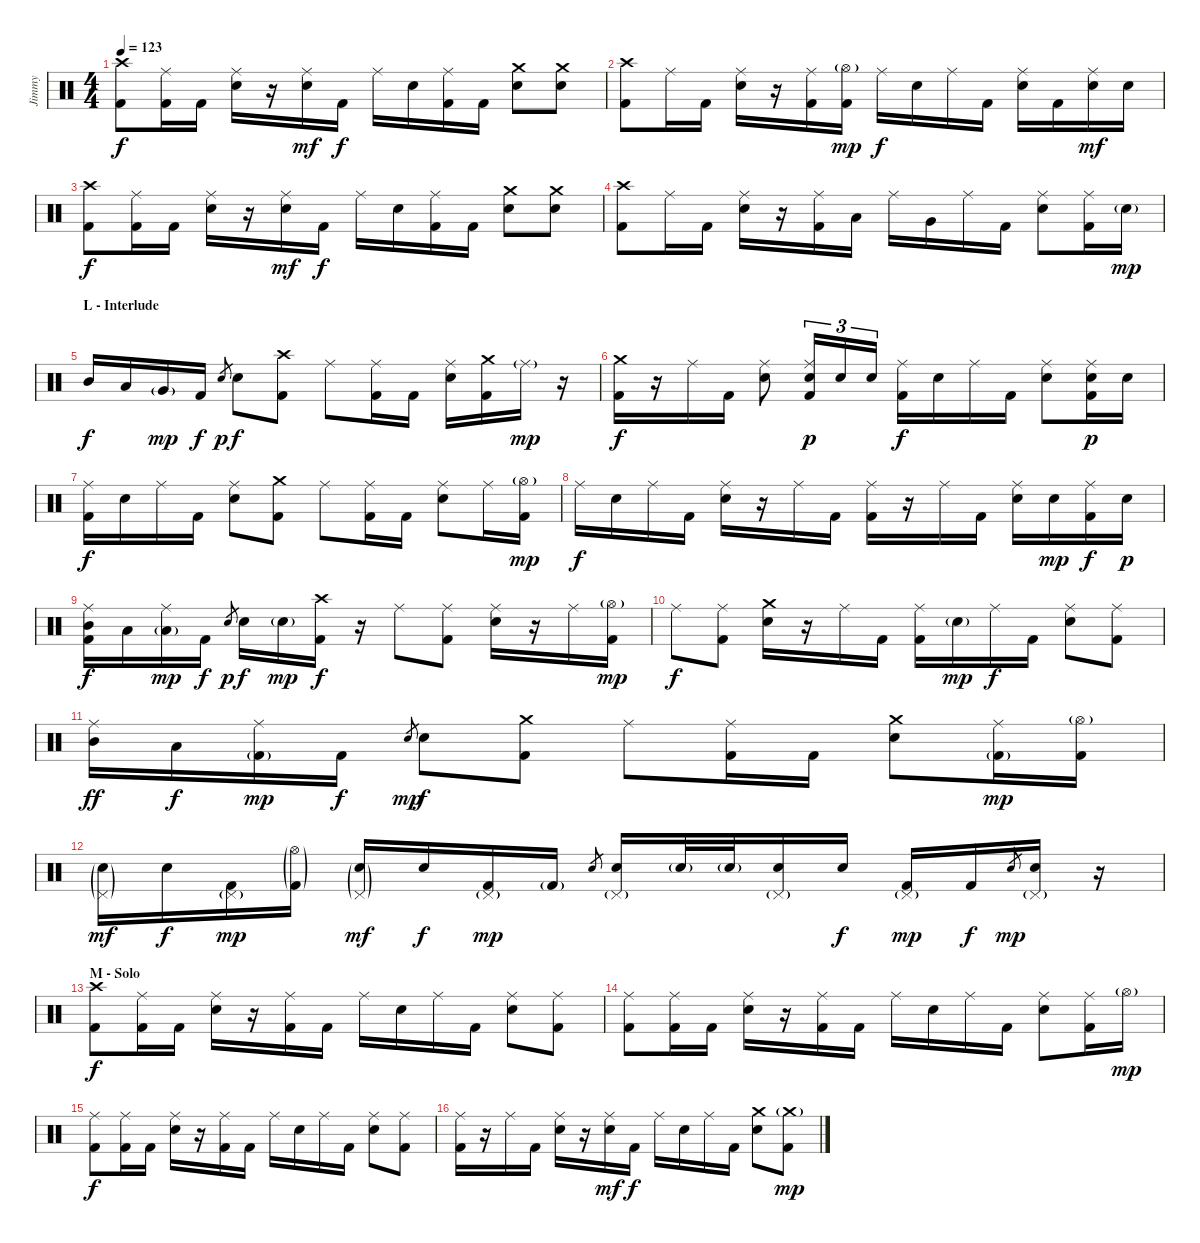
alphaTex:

\track ("Jimmy" "Jimmy") {instrument percussion}
\staff {score}
\articulation defaults
\ts (4 4)
\tempo 123
\clef neutral
\ks c
("Crash high (hit)" "Kick (hit) 2").8{dy f} ("Ride (middle)" "Kick (hit) 2").16 "Kick (hit) 2".16 ("Ride (middle)" "Electric Snare (hit)").16 r.16 ("Ride (middle)" "Electric Snare (hit)").16{dy mf} "Kick (hit) 2".16{dy f} "Ride (middle)".16 "Electric Snare (hit)".16 ("Ride (middle)" "Kick (hit) 2").16 "Kick (hit) 2".16 ("Crash medium (hit)" "Electric Snare (hit)").8 ("Crash medium (hit)" "Electric Snare (hit)").8 |
("Crash high (hit)" "Kick (hit) 2").8 "Ride (middle)".16 "Kick (hit) 2".16 ("Ride (middle)" "Electric Snare (hit)").16 r.16 ("Ride (middle)" "Kick (hit) 2").16 ("Hi-Hat (open)"{g} "Kick (hit) 2").16{dy mp} "Ride (middle)".16{dy f} "Electric Snare (hit)".16 "Ride (middle)".16 "Kick (hit) 2".16 ("Ride (middle)" "Electric Snare (hit)").16 "Kick (hit) 2".16 ("Ride (middle)" "Electric Snare (hit)").16{dy mf} "Electric Snare (hit)".16 |
("Crash high (hit)" "Kick (hit) 2").8{dy f} ("Ride (middle)" "Kick (hit) 2").16 "Kick (hit) 2".16 ("Ride (middle)" "Electric Snare (hit)").16 r.16 ("Ride (middle)" "Electric Snare (hit)").16{dy mf} "Kick (hit) 2".16{dy f} "Ride (middle)".16 "Electric Snare (hit)".16 ("Ride (middle)" "Kick (hit) 2").16 "Kick (hit) 2".16 ("Crash medium (hit)" "Electric Snare (hit)").8 ("Crash medium (hit)" "Electric Snare (hit)").8 |
("Crash high (hit)" "Kick (hit) 2").8 "Ride (middle)".16 "Kick (hit) 2".16 ("Ride (middle)" "Electric Snare (hit)").16 r.16 ("Ride (middle)" "Kick (hit) 2").16 "Low Tom (hit)".16 "Ride (middle)".16 "Very Low Tom (hit)".16 "Ride (middle)".16 "Kick (hit) 2".16 ("Ride (middle)" "Electric Snare (hit)").8 ("Ride (middle)" "Kick (hit) 2").16 "Electric Snare (hit)"{g}.16{dy mp} |
\section ("" "L - Interlude")
"Mid Tom (hit)".16{dy f} "Low Tom (hit)".16 "Very Low Tom (hit)"{g}.16{dy mp} "Kick (hit) 2".16{dy f} "Electric Snare (hit)".8{gr dy p} "Electric Snare (hit)".8{dy f} ("Crash high (hit)" "Kick (hit) 2").8 "Ride (middle)".8 ("Ride (middle)" "Kick (hit) 2").16 "Kick (hit) 2".16 ("Ride (middle)" "Electric Snare (hit)").16 ("Crash medium (hit)" "Kick (hit) 2").16 "Ride (middle)"{g}.16{dy mp} r.16 |
("Crash medium (hit)" "Kick (hit) 2").16{dy f} r.16 "Ride (middle)".16 "Kick (hit) 2".16 ("Ride (middle)" "Electric Snare (hit)").8 ("Ride (middle)" "Electric Snare (hit)" "Kick (hit) 2").16{tu (3 2) dy p} "Electric Snare (hit)".16{tu (3 2)} "Electric Snare (hit)".16{tu (3 2)} ("Ride (middle)" "Kick (hit) 2").16{dy f} "Electric Snare (hit)".16 "Ride (middle)".16 "Kick (hit) 2".16 ("Ride (middle)" "Electric Snare (hit)").8 ("Ride (middle)" "Electric Snare (hit)" "Kick (hit) 2").16{dy p} "Electric Snare (hit)".16 |
("Ride (middle)" "Kick (hit) 2").16{dy f} "Electric Snare (hit)".16 "Ride (middle)".16 "Kick (hit) 2".16 ("Ride (middle)" "Electric Snare (hit)").8 ("Crash medium (hit)" "Kick (hit) 2").8 "Ride (middle)".8 ("Ride (middle)" "Kick (hit) 2").16 "Kick (hit) 2".16 ("Ride (middle)" "Electric Snare (hit)").8 "Ride (middle)".16 ("Hi-Hat (open)"{g} "Kick (hit) 2").16{dy mp} |
"Ride (middle)".16{dy f} "Electric Snare (hit)".16 "Ride (middle)".16 "Kick (hit) 2".16 ("Ride (middle)" "Electric Snare (hit)").16 r.16 "Ride (middle)".16 "Kick (hit) 2".16 ("Ride (middle)" "Kick (hit) 2").16 r.16 "Ride (middle)".16 "Kick (hit) 2".16 ("Ride (middle)" "Electric Snare (hit)").16 "Electric Snare (hit)".16{dy mp} ("Ride (middle)" "Kick (hit) 2").16{dy f} "Electric Snare (hit)".16{dy p} |
("Ride (middle)" "Mid Tom (hit)" "Kick (hit) 2").16{dy f} "Low Tom (hit)".16 ("Ride (middle)" "Low Tom (hit)"{g}).16{dy mp} "Kick (hit) 2".16{dy f} "Electric Snare (hit)".8{gr dy p} "Electric Snare (hit)".16{dy f} "Electric Snare (hit)"{g}.16{dy mp} ("Crash high (hit)" "Kick (hit) 2").16{dy f} r.16 "Ride (middle)".8 ("Ride (middle)" "Kick (hit) 2").8 ("Ride (middle)" "Electric Snare (hit)").16 r.16 "Ride (middle)".16 ("Hi-Hat (open)"{g} "Kick (hit) 2").16{dy mp} |
"Ride (middle)".8{dy f} ("Ride (middle)" "Kick (hit) 2").8 ("Crash medium (hit)" "Electric Snare (hit)").16 r.16 "Ride (middle)".16 "Kick (hit) 2".16 ("Ride (middle)" "Kick (hit) 2").16 "Electric Snare (hit)"{g}.16{dy mp} "Ride (middle)".16{dy f} "Kick (hit) 2".16 ("Ride (middle)" "Electric Snare (hit)").8 ("Ride (middle)" "Kick (hit) 2").8 |
("Ride (middle)" "Mid Tom (hit)").16{dy ff} "Low Tom (hit)".16{dy f} ("Ride (middle)" "Kick (hit) 2"{g}).16{dy mp} "Kick (hit) 2".16{dy f} "Electric Snare (hit)".8{gr dy mp} "Electric Snare (hit)".8{dy f} ("Crash medium (hit)" "Kick (hit) 2").8 "Ride (middle)".8 ("Ride (middle)" "Kick (hit) 2").16 "Kick (hit) 2".16 ("Crash medium (hit)" "Electric Snare (hit)").8 ("Ride (middle)" "Kick (hit) 2"{g}).16{dy mp} ("Hi-Hat (open)"{g} "Kick (hit) 2").16 |
("Pedal Hi-Hat (hit)"{g} "Electric Snare (hit)"{g}).16{dy mf} "Electric Snare (hit)".16{dy f} ("Pedal Hi-Hat (hit)"{g} "Kick (hit) 2").16{dy mp} ("Hi-Hat (open)"{g} "Kick (hit) 2"{g}).16 ("Pedal Hi-Hat (hit)"{g} "Electric Snare (hit)"{g}).16{dy mf} "Electric Snare (hit)".16{dy f} ("Pedal Hi-Hat (hit)"{g} "Kick (hit) 2").16{dy mp} "Kick (hit) 2"{g}.16 "Electric Snare (hit)".8{gr} ("Pedal Hi-Hat (hit)"{g} "Electric Snare (hit)").16 "Electric Snare (hit)"{g}.32 "Electric Snare (hit)"{g}.32 ("Pedal Hi-Hat (hit)"{g} "Electric Snare (hit)").16 "Electric Snare (hit)".16{dy f} ("Pedal Hi-Hat (hit)"{g} "Kick (hit) 2").16{dy mp} "Kick (hit) 2".16{dy f} "Electric Snare (hit)".8{gr dy mp} ("Pedal Hi-Hat (hit)"{g} "Electric Snare (hit)").16 r.16 |
\section ("" "M - Solo")
("Crash high (hit)" "Kick (hit) 2").8{dy f} ("Ride (middle)" "Kick (hit) 2").16 "Kick (hit) 2".16 ("Ride (middle)" "Electric Snare (hit)").16 r.16 ("Ride (middle)" "Kick (hit) 2").16 "Kick (hit) 2".16 "Ride (middle)".16 "Electric Snare (hit)".16 "Ride (middle)".16 "Kick (hit) 2".16 ("Ride (middle)" "Electric Snare (hit)").8 ("Ride (middle)" "Kick (hit) 2").8 |
("Ride (middle)" "Kick (hit) 2").8 ("Ride (middle)" "Kick (hit) 2").16 "Kick (hit) 2".16 ("Ride (middle)" "Electric Snare (hit)").16 r.16 ("Ride (middle)" "Kick (hit) 2").16 "Kick (hit) 2".16 "Ride (middle)".16 "Electric Snare (hit)".16 "Ride (middle)".16 "Kick (hit) 2".16 ("Ride (middle)" "Electric Snare (hit)").8 ("Ride (middle)" "Kick (hit) 2").16 "Hi-Hat (open)"{g}.16{dy mp} |
("Ride (middle)" "Kick (hit) 2").8{dy f} ("Ride (middle)" "Kick (hit) 2").16 "Kick (hit) 2".16 ("Ride (middle)" "Electric Snare (hit)").16 r.16 ("Ride (middle)" "Kick (hit) 2").16 "Kick (hit) 2".16 "Ride (middle)".16 "Electric Snare (hit)".16 "Ride (middle)".16 "Kick (hit) 2".16 ("Ride (middle)" "Electric Snare (hit)").8 ("Ride (middle)" "Kick (hit) 2").8 |
("Ride (middle)" "Kick (hit) 2").16 r.16 "Ride (middle)".16 "Kick (hit) 2".16 ("Ride (middle)" "Electric Snare (hit)").16 r.16 ("Ride (middle)" "Electric Snare (hit)").16{dy mf} "Kick (hit) 2".16{dy f} "Ride (middle)".16 "Electric Snare (hit)".16 "Ride (middle)".16 "Kick (hit) 2".16 ("Crash medium (hit)" "Electric Snare (hit)").8 ("Crash medium (hit)"{g} "Kick (hit) 2").8{dy mp}
